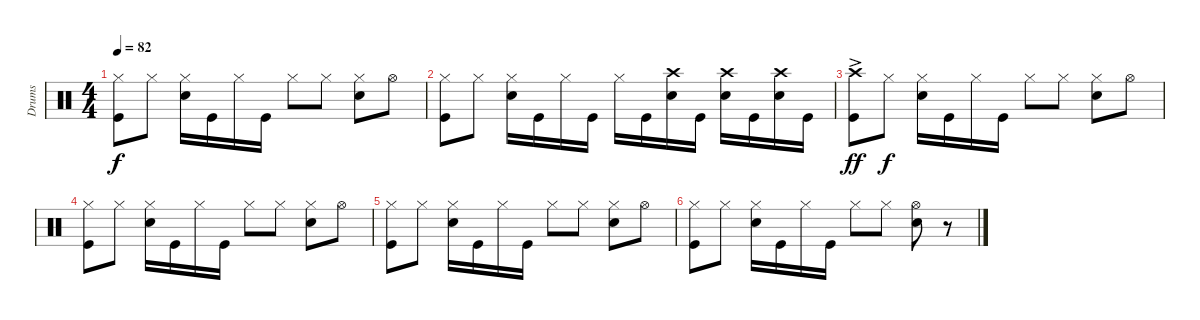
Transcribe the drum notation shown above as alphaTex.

\track ("Drums" "Drums") {instrument percussion}
\staff {score}
\articulation defaults
\ts (4 4)
\tempo 82
\clef neutral
\ks c
("Hi-Hat (closed)" "Kick (hit)").8{dy f} "Hi-Hat (closed)".8 ("Hi-Hat (closed)" "Snare (hit) 2").16 "Kick (hit)".16 "Hi-Hat (closed)".16 "Kick (hit)".16 "Hi-Hat (closed)".8 "Hi-Hat (closed)".8 ("Hi-Hat (closed)" "Snare (hit) 2").8 "Hi-Hat (open)".8 |
("Hi-Hat (closed)" "Kick (hit)").8 "Hi-Hat (closed)".8 ("Hi-Hat (closed)" "Snare (hit) 2").16 "Kick (hit)".16 "Hi-Hat (closed)".16 "Kick (hit)".16 "Hi-Hat (closed)".16 "Kick (hit)".16 ("Crash high (hit)" "Electric Snare (hit)").16 "Kick (hit)".16 ("Crash high (hit)" "Electric Snare (hit)").16 "Kick (hit)".16 ("Crash high (hit)" "Electric Snare (hit)").16 "Kick (hit)".16 |
("Crash high (hit)"{ac} "Kick (hit)"{ac}).8{dy ff} "Hi-Hat (closed)".8{dy f} ("Hi-Hat (closed)" "Snare (hit) 2").16 "Kick (hit)".16 "Hi-Hat (closed)".16 "Kick (hit)".16 "Hi-Hat (closed)".8 "Hi-Hat (closed)".8 ("Hi-Hat (closed)" "Snare (hit) 2").8 "Hi-Hat (open)".8 |
("Hi-Hat (closed)" "Kick (hit)").8 "Hi-Hat (closed)".8 ("Hi-Hat (closed)" "Snare (hit) 2").16 "Kick (hit)".16 "Hi-Hat (closed)".16 "Kick (hit)".16 "Hi-Hat (closed)".8 "Hi-Hat (closed)".8 ("Hi-Hat (closed)" "Snare (hit) 2").8 "Hi-Hat (open)".8 |
("Hi-Hat (closed)" "Kick (hit)").8 "Hi-Hat (closed)".8 ("Hi-Hat (closed)" "Snare (hit) 2").16 "Kick (hit)".16 "Hi-Hat (closed)".16 "Kick (hit)".16 "Hi-Hat (closed)".8 "Hi-Hat (closed)".8 ("Hi-Hat (closed)" "Snare (hit) 2").8 "Hi-Hat (open)".8 |
("Hi-Hat (closed)" "Kick (hit)").8 "Hi-Hat (closed)".8 ("Hi-Hat (closed)" "Snare (hit) 2").16 "Kick (hit)".16 "Hi-Hat (closed)".16 "Kick (hit)".16 "Hi-Hat (closed)".8 "Hi-Hat (closed)".8 ("Hi-Hat (open)" "Snare (hit) 2").8 r.8
